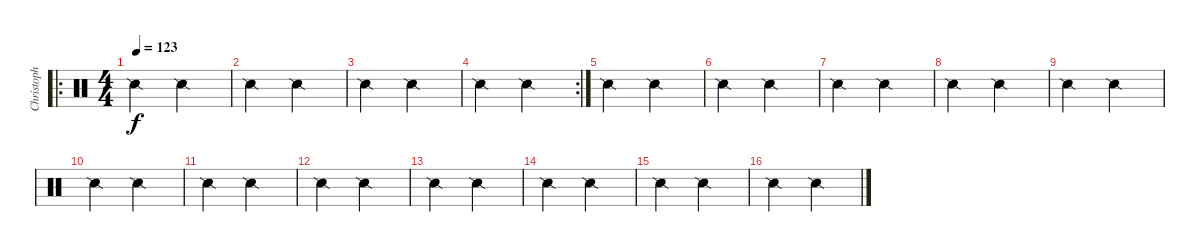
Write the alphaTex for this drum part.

\track ("Christoph DOOM Schneider" "Christoph ") {instrument percussion}
\staff {score}
\articulation defaults
\ro
\ts (4 4)
\tempo 123
\clef neutral
\ks c "Snare (side stick) 2".2{dy f} "Snare (side stick) 2".2
|
"Snare (side stick) 2".2 "Snare (side stick) 2".2 |
"Snare (side stick) 2".2 "Snare (side stick) 2".2 |
\rc 2 "Snare (side stick) 2".2 "Snare (side stick) 2".2
|
"Snare (side stick) 2".2 "Snare (side stick) 2".2 |
"Snare (side stick) 2".2 "Snare (side stick) 2".2 |
"Snare (side stick) 2".2 "Snare (side stick) 2".2 |
"Snare (side stick) 2".2 "Snare (side stick) 2".2 |
"Snare (side stick) 2".2 "Snare (side stick) 2".2 |
"Snare (side stick) 2".2 "Snare (side stick) 2".2 |
"Snare (side stick) 2".2 "Snare (side stick) 2".2 |
"Snare (side stick) 2".2 "Snare (side stick) 2".2 |
"Snare (side stick) 2".2 "Snare (side stick) 2".2 |
"Snare (side stick) 2".2 "Snare (side stick) 2".2 |
"Snare (side stick) 2".2 "Snare (side stick) 2".2 |
"Snare (side stick) 2".2 "Snare (side stick) 2".2
